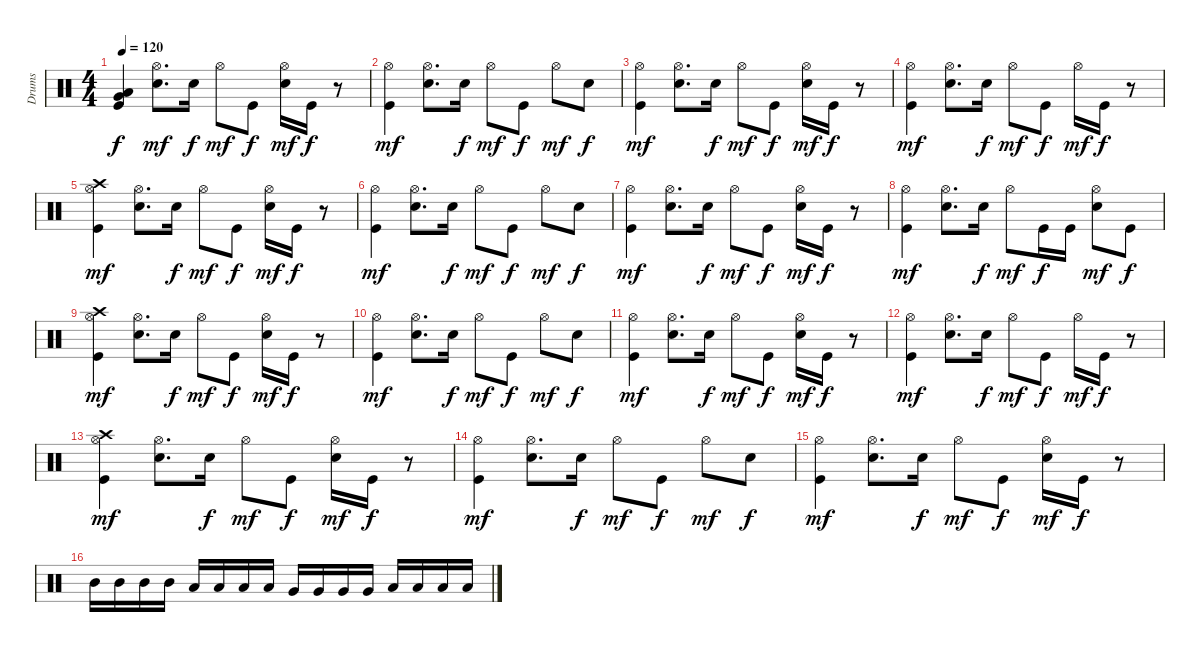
\track ("Drums" "Drums") {instrument percussion}
\staff {score}
\articulation defaults
\ts (4 4)
\tempo 120
\clef neutral
\ks c
("Very Low Tom (hit)" "Low Floor Tom (hit)" "Kick (hit)").4{dy f} ("Hi-Hat (open)" "Electric Snare (hit)").8{d dy mf} "Electric Snare (hit)".16{dy f} "Hi-Hat (open)".8{dy mf} "Kick (hit)".8{dy f} ("Hi-Hat (open)" "Electric Snare (hit)").16{dy mf} "Kick (hit)".16{dy f} r.8 |
("Hi-Hat (open)" "Kick (hit)").4{dy mf} ("Hi-Hat (open)" "Electric Snare (hit)").8{d} "Electric Snare (hit)".16{dy f} "Hi-Hat (open)".8{dy mf} "Kick (hit)".8{dy f} "Hi-Hat (open)".8{dy mf} "Electric Snare (hit)".8{dy f} |
("Hi-Hat (open)" "Kick (hit)").4{dy mf} ("Hi-Hat (open)" "Electric Snare (hit)").8{d} "Electric Snare (hit)".16{dy f} "Hi-Hat (open)".8{dy mf} "Kick (hit)".8{dy f} ("Hi-Hat (open)" "Electric Snare (hit)").16{dy mf} "Kick (hit)".16{dy f} r.8 |
("Hi-Hat (open)" "Kick (hit)").4{dy mf} ("Hi-Hat (open)" "Electric Snare (hit)").8{d} "Electric Snare (hit)".16{dy f} "Hi-Hat (open)".8{dy mf} "Kick (hit)".8{dy f} "Hi-Hat (open)".16{dy mf} "Kick (hit)".16{dy f} r.8 |
("Crash high (hit)" "Hi-Hat (open)" "Kick (hit)").4{dy mf} ("Hi-Hat (open)" "Electric Snare (hit)").8{d} "Electric Snare (hit)".16{dy f} "Hi-Hat (open)".8{dy mf} "Kick (hit)".8{dy f} ("Hi-Hat (open)" "Electric Snare (hit)").16{dy mf} "Kick (hit)".16{dy f} r.8 |
("Hi-Hat (open)" "Kick (hit)").4{dy mf} ("Hi-Hat (open)" "Electric Snare (hit)").8{d} "Electric Snare (hit)".16{dy f} "Hi-Hat (open)".8{dy mf} "Kick (hit)".8{dy f} "Hi-Hat (open)".8{dy mf} "Electric Snare (hit)".8{dy f} |
("Hi-Hat (open)" "Kick (hit)").4{dy mf} ("Hi-Hat (open)" "Electric Snare (hit)").8{d} "Electric Snare (hit)".16{dy f} "Hi-Hat (open)".8{dy mf} "Kick (hit)".8{dy f} ("Hi-Hat (open)" "Electric Snare (hit)").16{dy mf} "Kick (hit)".16{dy f} r.8 |
("Hi-Hat (open)" "Kick (hit)").4{dy mf} ("Hi-Hat (open)" "Electric Snare (hit)").8{d} "Electric Snare (hit)".16{dy f} "Hi-Hat (open)".8{dy mf} "Kick (hit)".16{dy f} "Kick (hit)".16 ("Hi-Hat (open)" "Electric Snare (hit)").8{dy mf} "Kick (hit)".8{dy f} |
("Crash high (hit)" "Hi-Hat (open)" "Kick (hit)").4{dy mf} ("Hi-Hat (open)" "Electric Snare (hit)").8{d} "Electric Snare (hit)".16{dy f} "Hi-Hat (open)".8{dy mf} "Kick (hit)".8{dy f} ("Hi-Hat (open)" "Electric Snare (hit)").16{dy mf} "Kick (hit)".16{dy f} r.8 |
("Hi-Hat (open)" "Kick (hit)").4{dy mf} ("Hi-Hat (open)" "Electric Snare (hit)").8{d} "Electric Snare (hit)".16{dy f} "Hi-Hat (open)".8{dy mf} "Kick (hit)".8{dy f} "Hi-Hat (open)".8{dy mf} "Electric Snare (hit)".8{dy f} |
("Hi-Hat (open)" "Kick (hit)").4{dy mf} ("Hi-Hat (open)" "Electric Snare (hit)").8{d} "Electric Snare (hit)".16{dy f} "Hi-Hat (open)".8{dy mf} "Kick (hit)".8{dy f} ("Hi-Hat (open)" "Electric Snare (hit)").16{dy mf} "Kick (hit)".16{dy f} r.8 |
("Hi-Hat (open)" "Kick (hit)").4{dy mf} ("Hi-Hat (open)" "Electric Snare (hit)").8{d} "Electric Snare (hit)".16{dy f} "Hi-Hat (open)".8{dy mf} "Kick (hit)".8{dy f} "Hi-Hat (open)".16{dy mf} "Kick (hit)".16{dy f} r.8 |
("Crash high (hit)" "Hi-Hat (open)" "Kick (hit)").4{dy mf} ("Hi-Hat (open)" "Electric Snare (hit)").8{d} "Electric Snare (hit)".16{dy f} "Hi-Hat (open)".8{dy mf} "Kick (hit)".8{dy f} ("Hi-Hat (open)" "Electric Snare (hit)").16{dy mf} "Kick (hit)".16{dy f} r.8 |
("Hi-Hat (open)" "Kick (hit)").4{dy mf} ("Hi-Hat (open)" "Electric Snare (hit)").8{d} "Electric Snare (hit)".16{dy f} "Hi-Hat (open)".8{dy mf} "Kick (hit)".8{dy f} "Hi-Hat (open)".8{dy mf} "Electric Snare (hit)".8{dy f} |
("Hi-Hat (open)" "Kick (hit)").4{dy mf} ("Hi-Hat (open)" "Electric Snare (hit)").8{d} "Electric Snare (hit)".16{dy f} "Hi-Hat (open)".8{dy mf} "Kick (hit)".8{dy f} ("Hi-Hat (open)" "Electric Snare (hit)").16{dy mf} "Kick (hit)".16{dy f} r.8 |
"Mid Tom (hit)".16 "Mid Tom (hit)".16 "Mid Tom (hit)".16 "Mid Tom (hit)".16 "Low Tom (hit)".16 "Low Tom (hit)".16 "Low Tom (hit)".16 "Low Tom (hit)".16 "Very Low Tom (hit)".16 "Very Low Tom (hit)".16 "Very Low Tom (hit)".16 "Very Low Tom (hit)".16 "Low Floor Tom (hit)".16 "Low Floor Tom (hit)".16 "Low Floor Tom (hit)".16 "Low Floor Tom (hit)".16
